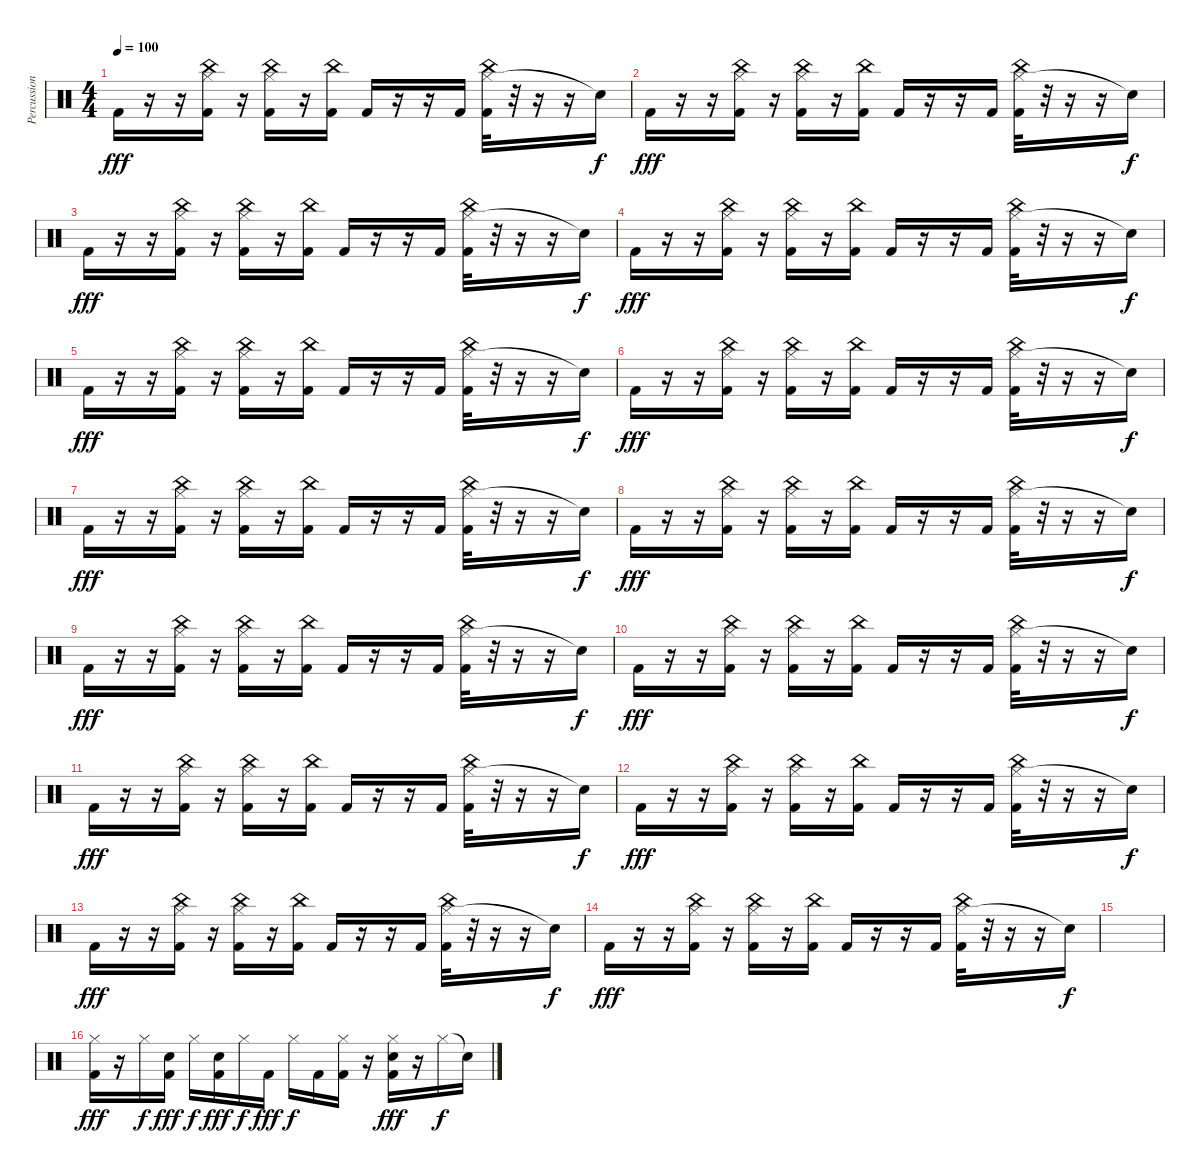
\track ("Percussion" "Percussion") {instrument percussion}
\staff {score}
\articulation defaults
\ts (4 4)
\tempo 100
\clef neutral
\ks c "Kick (hit) 2".16{dy fff}
r.16 r.16 ("Hi-Hat (closed)" "China (hit)" "Kick (hit) 2").16 r.16 ("Hi-Hat (closed)" "China (hit)" "Kick (hit) 2").16 r.16 ("China (hit)" "Kick (hit) 2").16 "Kick (hit) 2".16 r.16 r.16 "Kick (hit) 2".16 ("Hi-Hat (closed)" "China (hit)" "Kick (hit) 2").32 r.32 r.16 r.16 "Snare (hit)"{t}.16{dy f} |
"Kick (hit) 2".16{dy fff} r.16 r.16 ("Hi-Hat (closed)" "China (hit)" "Kick (hit) 2").16 r.16 ("Hi-Hat (closed)" "China (hit)" "Kick (hit) 2").16 r.16 ("China (hit)" "Kick (hit) 2").16 "Kick (hit) 2".16 r.16 r.16 "Kick (hit) 2".16 ("Hi-Hat (closed)" "China (hit)" "Kick (hit) 2").32 r.32 r.16 r.16 "Snare (hit)"{t}.16{dy f} |
"Kick (hit) 2".16{dy fff} r.16 r.16 ("Hi-Hat (closed)" "China (hit)" "Kick (hit) 2").16 r.16 ("Hi-Hat (closed)" "China (hit)" "Kick (hit) 2").16 r.16 ("China (hit)" "Kick (hit) 2").16 "Kick (hit) 2".16 r.16 r.16 "Kick (hit) 2".16 ("Hi-Hat (closed)" "China (hit)" "Kick (hit) 2").32 r.32 r.16 r.16 "Snare (hit)"{t}.16{dy f} |
"Kick (hit) 2".16{dy fff} r.16 r.16 ("Hi-Hat (closed)" "China (hit)" "Kick (hit) 2").16 r.16 ("Hi-Hat (closed)" "China (hit)" "Kick (hit) 2").16 r.16 ("China (hit)" "Kick (hit) 2").16 "Kick (hit) 2".16 r.16 r.16 "Kick (hit) 2".16 ("Hi-Hat (closed)" "China (hit)" "Kick (hit) 2").32 r.32 r.16 r.16 "Snare (hit)"{t}.16{dy f} |
"Kick (hit) 2".16{dy fff} r.16 r.16 ("Hi-Hat (closed)" "China (hit)" "Kick (hit) 2").16 r.16 ("Hi-Hat (closed)" "China (hit)" "Kick (hit) 2").16 r.16 ("China (hit)" "Kick (hit) 2").16 "Kick (hit) 2".16 r.16 r.16 "Kick (hit) 2".16 ("Hi-Hat (closed)" "China (hit)" "Kick (hit) 2").32 r.32 r.16 r.16 "Snare (hit)"{t}.16{dy f} |
"Kick (hit) 2".16{dy fff} r.16 r.16 ("Hi-Hat (closed)" "China (hit)" "Kick (hit) 2").16 r.16 ("Hi-Hat (closed)" "China (hit)" "Kick (hit) 2").16 r.16 ("China (hit)" "Kick (hit) 2").16 "Kick (hit) 2".16 r.16 r.16 "Kick (hit) 2".16 ("Hi-Hat (closed)" "China (hit)" "Kick (hit) 2").32 r.32 r.16 r.16 "Snare (hit)"{t}.16{dy f} |
"Kick (hit) 2".16{dy fff} r.16 r.16 ("Hi-Hat (closed)" "China (hit)" "Kick (hit) 2").16 r.16 ("Hi-Hat (closed)" "China (hit)" "Kick (hit) 2").16 r.16 ("China (hit)" "Kick (hit) 2").16 "Kick (hit) 2".16 r.16 r.16 "Kick (hit) 2".16 ("Hi-Hat (closed)" "China (hit)" "Kick (hit) 2").32 r.32 r.16 r.16 "Snare (hit)"{t}.16{dy f} |
"Kick (hit) 2".16{dy fff} r.16 r.16 ("Hi-Hat (closed)" "China (hit)" "Kick (hit) 2").16 r.16 ("Hi-Hat (closed)" "China (hit)" "Kick (hit) 2").16 r.16 ("China (hit)" "Kick (hit) 2").16 "Kick (hit) 2".16 r.16 r.16 "Kick (hit) 2".16 ("Hi-Hat (closed)" "China (hit)" "Kick (hit) 2").32 r.32 r.16 r.16 "Snare (hit)"{t}.16{dy f} |
"Kick (hit) 2".16{dy fff} r.16 r.16 ("Hi-Hat (closed)" "China (hit)" "Kick (hit) 2").16 r.16 ("Hi-Hat (closed)" "China (hit)" "Kick (hit) 2").16 r.16 ("China (hit)" "Kick (hit) 2").16 "Kick (hit) 2".16 r.16 r.16 "Kick (hit) 2".16 ("Hi-Hat (closed)" "China (hit)" "Kick (hit) 2").32 r.32 r.16 r.16 "Snare (hit)"{t}.16{dy f} |
"Kick (hit) 2".16{dy fff} r.16 r.16 ("Hi-Hat (closed)" "China (hit)" "Kick (hit) 2").16 r.16 ("Hi-Hat (closed)" "China (hit)" "Kick (hit) 2").16 r.16 ("China (hit)" "Kick (hit) 2").16 "Kick (hit) 2".16 r.16 r.16 "Kick (hit) 2".16 ("Hi-Hat (closed)" "China (hit)" "Kick (hit) 2").32 r.32 r.16 r.16 "Snare (hit)"{t}.16{dy f} |
"Kick (hit) 2".16{dy fff} r.16 r.16 ("Hi-Hat (closed)" "China (hit)" "Kick (hit) 2").16 r.16 ("Hi-Hat (closed)" "China (hit)" "Kick (hit) 2").16 r.16 ("China (hit)" "Kick (hit) 2").16 "Kick (hit) 2".16 r.16 r.16 "Kick (hit) 2".16 ("Hi-Hat (closed)" "China (hit)" "Kick (hit) 2").32 r.32 r.16 r.16 "Snare (hit)"{t}.16{dy f} |
"Kick (hit) 2".16{dy fff} r.16 r.16 ("Hi-Hat (closed)" "China (hit)" "Kick (hit) 2").16 r.16 ("Hi-Hat (closed)" "China (hit)" "Kick (hit) 2").16 r.16 ("China (hit)" "Kick (hit) 2").16 "Kick (hit) 2".16 r.16 r.16 "Kick (hit) 2".16 ("Hi-Hat (closed)" "China (hit)" "Kick (hit) 2").32 r.32 r.16 r.16 "Snare (hit)"{t}.16{dy f} |
"Kick (hit) 2".16{dy fff} r.16 r.16 ("Hi-Hat (closed)" "China (hit)" "Kick (hit) 2").16 r.16 ("Hi-Hat (closed)" "China (hit)" "Kick (hit) 2").16 r.16 ("China (hit)" "Kick (hit) 2").16 "Kick (hit) 2".16 r.16 r.16 "Kick (hit) 2".16 ("Hi-Hat (closed)" "China (hit)" "Kick (hit) 2").32 r.32 r.16 r.16 "Snare (hit)"{t}.16{dy f} |
"Kick (hit) 2".16{dy fff} r.16 r.16 ("Hi-Hat (closed)" "China (hit)" "Kick (hit) 2").16 r.16 ("Hi-Hat (closed)" "China (hit)" "Kick (hit) 2").16 r.16 ("China (hit)" "Kick (hit) 2").16 "Kick (hit) 2".16 r.16 r.16 "Kick (hit) 2".16 ("Hi-Hat (closed)" "China (hit)" "Kick (hit) 2").32 r.32 r.16 r.16 "Snare (hit)"{t}.16{dy f} |
|
("Hi-Hat (closed)" "Kick (hit) 2").16{dy fff volume 16} r.16 "Hi-Hat (closed)".16{dy f} ("Snare (hit) 2" "Kick (hit) 2").16{dy fff} "Hi-Hat (closed)".16{dy f} ("Snare (hit) 2" "Kick (hit) 2").16{dy fff} "Hi-Hat (closed)".16{dy f} "Kick (hit) 2".16{dy fff} "Hi-Hat (closed)".16{dy f} "Kick (hit) 2".16 ("Hi-Hat (closed)" "Kick (hit) 2").16 r.16 ("Hi-Hat (closed)" "Snare (hit) 2" "Kick (hit) 2").16{dy fff} r.16 "Hi-Hat (closed)".16{dy f} "Snare (hit)"{t}.16
